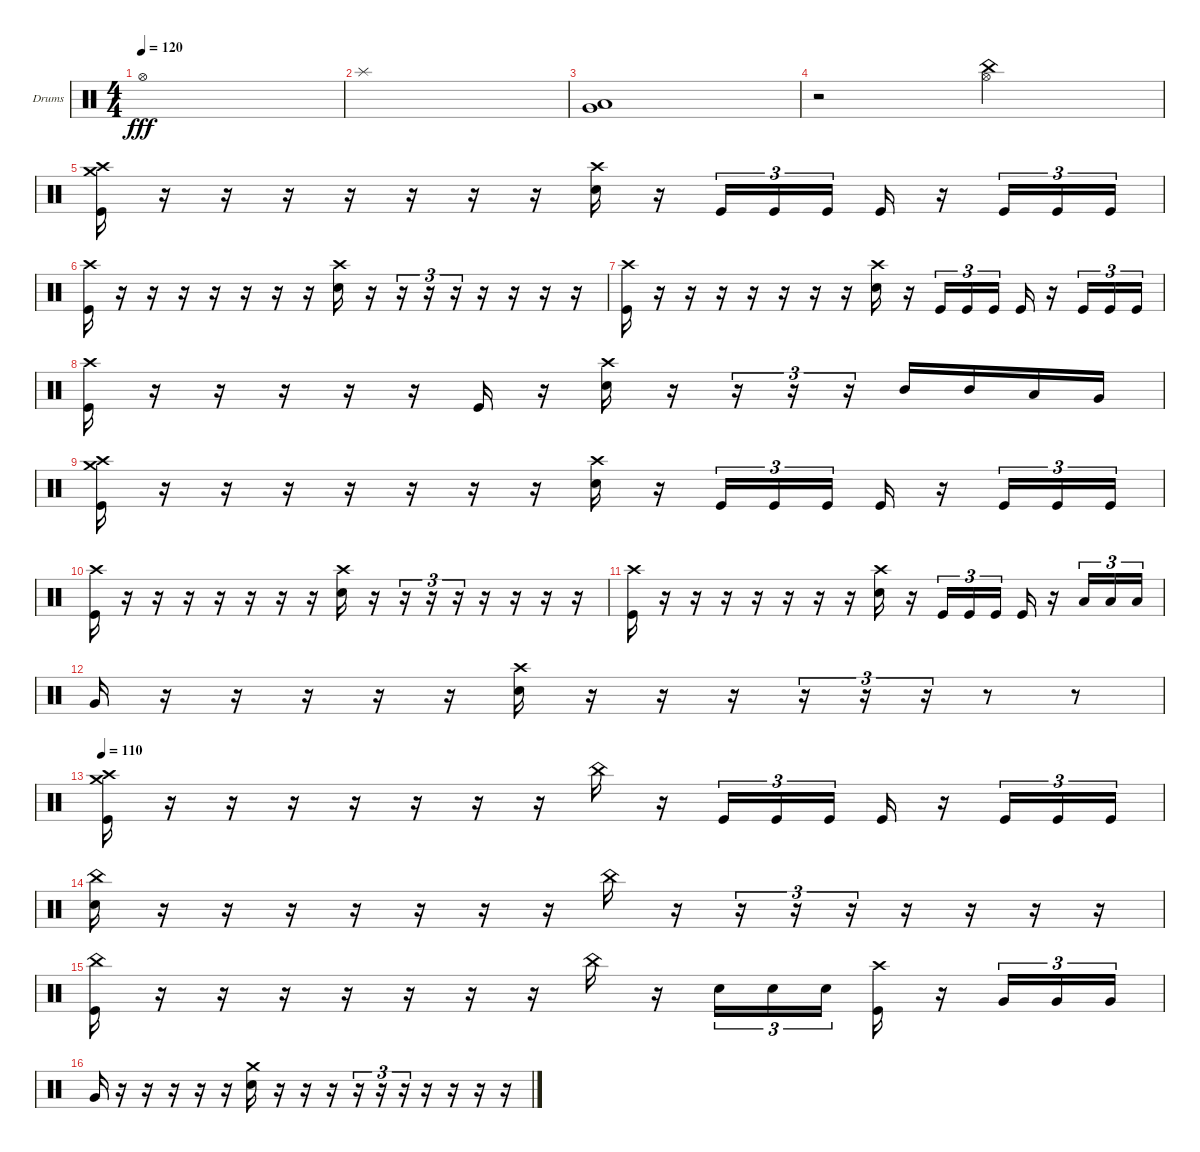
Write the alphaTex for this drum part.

\bracketExtendMode groupsimilarinstruments
\firstSystemTrackNameOrientation horizontal
\otherSystemsTrackNameOrientation horizontal
\track ("Drumkit" "Drums") {instrument percussion}
\staff {score}
\articulation defaults
\ts (4 4)
\tempo 120
\clef neutral
\ks c "Hi-Hat (open)".1{dy fff}
|
"Splash (hit)".1 |
("Very Low Tom (hit)" "Low Tom (hit)").1 |
r.2 ("Hi-Hat (open)" "China (hit)").2 |
("Kick (hit)" "Crash high (hit)" "Crash medium (hit)").16 r.16 r.16 r.16 r.16 r.16 r.16 r.16 ("Crash high (hit)" "Snare (hit) 2").16 r.16 "Kick (hit)".16{tu (3 2)} "Kick (hit)".16{tu (3 2)} "Kick (hit)".16{tu (3 2)} "Kick (hit)".16 r.16 "Kick (hit)".16{tu (3 2)} "Kick (hit)".16{tu (3 2)} "Kick (hit)".16{tu (3 2)} |
("Kick (hit)" "Crash high (hit)").16 r.16 r.16 r.16 r.16 r.16 r.16 r.16 ("Crash high (hit)" "Snare (hit) 2").16 r.16 r.16{tu (3 2)} r.16{tu (3 2)} r.16{tu (3 2)} r.16 r.16 r.16 r.16 |
("Kick (hit)" "Crash high (hit)").16 r.16 r.16 r.16 r.16 r.16 r.16 r.16 ("Crash high (hit)" "Snare (hit) 2").16 r.16 "Kick (hit)".16{tu (3 2)} "Kick (hit)".16{tu (3 2)} "Kick (hit)".16{tu (3 2)} "Kick (hit)".16 r.16 "Kick (hit)".16{tu (3 2)} "Kick (hit)".16{tu (3 2)} "Kick (hit)".16{tu (3 2)} |
("Kick (hit)" "Crash high (hit)").16 r.16 r.16 r.16 r.16 r.16 "Kick (hit)".16 r.16 ("Crash high (hit)" "Snare (hit) 2").16 r.16 r.16{tu (3 2)} r.16{tu (3 2)} r.16{tu (3 2)} "Mid Tom (hit)".16 "Mid Tom (hit)".16 "Low Tom (hit)".16 "Very Low Tom (hit)".16 |
("Kick (hit)" "Crash high (hit)" "Crash medium (hit)").16 r.16 r.16 r.16 r.16 r.16 r.16 r.16 ("Crash high (hit)" "Snare (hit) 2").16 r.16 "Kick (hit)".16{tu (3 2)} "Kick (hit)".16{tu (3 2)} "Kick (hit)".16{tu (3 2)} "Kick (hit)".16 r.16 "Kick (hit)".16{tu (3 2)} "Kick (hit)".16{tu (3 2)} "Kick (hit)".16{tu (3 2)} |
("Kick (hit)" "Crash high (hit)").16 r.16 r.16 r.16 r.16 r.16 r.16 r.16 ("Crash high (hit)" "Snare (hit) 2").16 r.16 r.16{tu (3 2)} r.16{tu (3 2)} r.16{tu (3 2)} r.16 r.16 r.16 r.16 |
("Kick (hit)" "Crash high (hit)").16 r.16 r.16 r.16 r.16 r.16 r.16 r.16 ("Crash high (hit)" "Snare (hit) 2").16 r.16 "Kick (hit)".16{tu (3 2)} "Kick (hit)".16{tu (3 2)} "Kick (hit)".16{tu (3 2)} "Kick (hit)".16 r.16 "Low Tom (hit)".16{tu (3 2)} "Low Tom (hit)".16{tu (3 2)} "Low Tom (hit)".16{tu (3 2)} |
"Very Low Tom (hit)".16 r.16 r.16 r.16 r.16 r.16 ("Snare (hit) 2" "Crash high (hit)").16 r.16 r.16 r.16 r.16{tu (3 2)} r.16{tu (3 2)} r.16{tu (3 2)} r.8 r.8 |
\tempo 110
("Kick (hit)" "Crash high (hit)" "Crash medium (hit)").16 r.16 r.16 r.16 r.16 r.16 r.16 r.16 "China (hit)".16 r.16 "Kick (hit)".16{tu (3 2)} "Kick (hit)".16{tu (3 2)} "Kick (hit)".16{tu (3 2)} "Kick (hit)".16 r.16 "Kick (hit)".16{tu (3 2)} "Kick (hit)".16{tu (3 2)} "Kick (hit)".16{tu (3 2)} |
("Snare (hit) 2" "China (hit)").16 r.16 r.16 r.16 r.16 r.16 r.16 r.16 "China (hit)".16 r.16 r.16{tu (3 2)} r.16{tu (3 2)} r.16{tu (3 2)} r.16 r.16 r.16 r.16 |
("Kick (hit)" "China (hit)").16 r.16 r.16 r.16 r.16 r.16 r.16 r.16 "China (hit)".16 r.16 "Snare (hit) 2".16{tu (3 2)} "Snare (hit) 2".16{tu (3 2)} "Snare (hit) 2".16{tu (3 2)} ("Kick (hit)" "Crash high (hit)").16 r.16 "Very Low Tom (hit)".16{tu (3 2)} "Very Low Tom (hit)".16{tu (3 2)} "Very Low Tom (hit)".16{tu (3 2)} |
"Very Low Tom (hit)".16 r.16 r.16 r.16 r.16 r.16 ("Snare (hit) 2" "Crash medium (hit)").16 r.16 r.16 r.16 r.16{tu (3 2)} r.16{tu (3 2)} r.16{tu (3 2)} r.16 r.16 r.16 r.16
